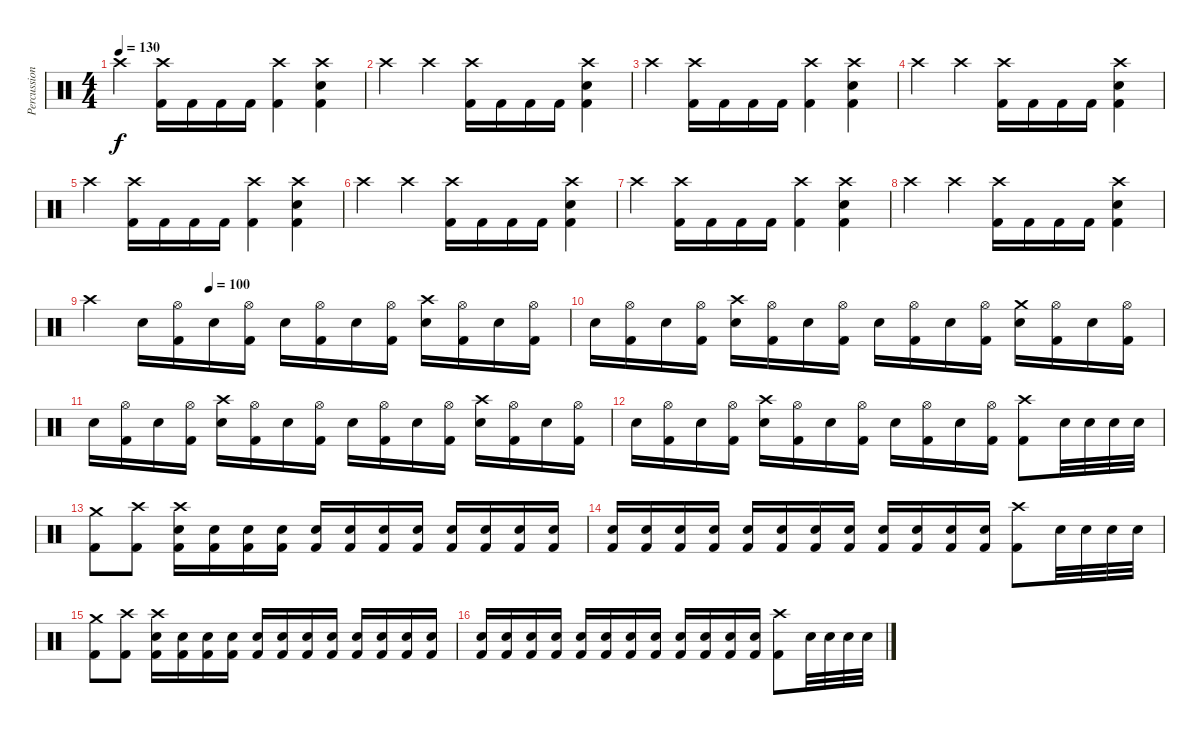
\track ("Percussion" "Percussion") {instrument percussion}
\staff {score}
\articulation defaults
\ts (4 4)
\tempo 130
\clef neutral
\ks c "Crash high (hit)".4{dy f}
("Crash high (hit)" "Kick (hit) 2").16 "Kick (hit) 2".16 "Kick (hit) 2".16 "Kick (hit) 2".16 ("Crash high (hit)" "Kick (hit) 2").4 ("Crash high (hit)" "Electric Snare (hit)" "Kick (hit) 2").4 |
"Crash high (hit)".4 "Crash high (hit)".4 ("Crash high (hit)" "Kick (hit) 2").16 "Kick (hit) 2".16 "Kick (hit) 2".16 "Kick (hit) 2".16 ("Crash high (hit)" "Electric Snare (hit)" "Kick (hit) 2").4 |
"Crash high (hit)".4 ("Crash high (hit)" "Kick (hit) 2").16 "Kick (hit) 2".16 "Kick (hit) 2".16 "Kick (hit) 2".16 ("Crash high (hit)" "Kick (hit) 2").4 ("Crash high (hit)" "Electric Snare (hit)" "Kick (hit) 2").4 |
"Crash high (hit)".4 "Crash high (hit)".4 ("Crash high (hit)" "Kick (hit) 2").16 "Kick (hit) 2".16 "Kick (hit) 2".16 "Kick (hit) 2".16 ("Crash high (hit)" "Electric Snare (hit)" "Kick (hit) 2").4 |
"Crash high (hit)".4 ("Crash high (hit)" "Kick (hit) 2").16 "Kick (hit) 2".16 "Kick (hit) 2".16 "Kick (hit) 2".16 ("Crash high (hit)" "Kick (hit) 2").4 ("Crash high (hit)" "Electric Snare (hit)" "Kick (hit) 2").4 |
"Crash high (hit)".4 "Crash high (hit)".4 ("Crash high (hit)" "Kick (hit) 2").16 "Kick (hit) 2".16 "Kick (hit) 2".16 "Kick (hit) 2".16 ("Crash high (hit)" "Electric Snare (hit)" "Kick (hit) 2").4 |
"Crash high (hit)".4 ("Crash high (hit)" "Kick (hit) 2").16 "Kick (hit) 2".16 "Kick (hit) 2".16 "Kick (hit) 2".16 ("Crash high (hit)" "Kick (hit) 2").4 ("Crash high (hit)" "Electric Snare (hit)" "Kick (hit) 2").4 |
"Crash high (hit)".4 "Crash high (hit)".4 ("Crash high (hit)" "Kick (hit) 2").16 "Kick (hit) 2".16 "Kick (hit) 2".16 "Kick (hit) 2".16 ("Crash high (hit)" "Electric Snare (hit)" "Kick (hit) 2").4 |
\tempo (100 0.25)
"Crash high (hit)".4 "Electric Snare (hit)".16 ("Hi-Hat (open)" "Kick (hit) 2").16 "Electric Snare (hit)".16 ("Hi-Hat (open)" "Kick (hit) 2").16 "Electric Snare (hit)".16 ("Hi-Hat (open)" "Kick (hit) 2").16 "Electric Snare (hit)".16 ("Hi-Hat (open)" "Kick (hit) 2").16 ("Crash high (hit)" "Electric Snare (hit)").16 ("Hi-Hat (open)" "Kick (hit) 2").16 "Electric Snare (hit)".16 ("Hi-Hat (open)" "Kick (hit) 2").16 |
"Electric Snare (hit)".16 ("Hi-Hat (open)" "Kick (hit) 2").16 "Electric Snare (hit)".16 ("Hi-Hat (open)" "Kick (hit) 2").16 ("Crash high (hit)" "Electric Snare (hit)").16 ("Hi-Hat (open)" "Kick (hit) 2").16 "Electric Snare (hit)".16 ("Hi-Hat (open)" "Kick (hit) 2").16 "Electric Snare (hit)".16 ("Hi-Hat (open)" "Kick (hit) 2").16 "Electric Snare (hit)".16 ("Hi-Hat (open)" "Kick (hit) 2").16 ("Crash medium (hit)" "Electric Snare (hit)").16 ("Hi-Hat (open)" "Kick (hit) 2").16 "Electric Snare (hit)".16 ("Hi-Hat (open)" "Kick (hit) 2").16 |
"Electric Snare (hit)".16 ("Hi-Hat (open)" "Kick (hit) 2").16 "Electric Snare (hit)".16 ("Hi-Hat (open)" "Kick (hit) 2").16 ("Crash high (hit)" "Electric Snare (hit)").16 ("Hi-Hat (open)" "Kick (hit) 2").16 "Electric Snare (hit)".16 ("Hi-Hat (open)" "Kick (hit) 2").16 "Electric Snare (hit)".16 ("Hi-Hat (open)" "Kick (hit) 2").16 "Electric Snare (hit)".16 ("Hi-Hat (open)" "Kick (hit) 2").16 ("Crash high (hit)" "Electric Snare (hit)").16 ("Hi-Hat (open)" "Kick (hit) 2").16 "Electric Snare (hit)".16 ("Hi-Hat (open)" "Kick (hit) 2").16 |
"Electric Snare (hit)".16 ("Hi-Hat (open)" "Kick (hit) 2").16 "Electric Snare (hit)".16 ("Hi-Hat (open)" "Kick (hit) 2").16 ("Crash high (hit)" "Electric Snare (hit)").16 ("Hi-Hat (open)" "Kick (hit) 2").16 "Electric Snare (hit)".16 ("Hi-Hat (open)" "Kick (hit) 2").16 "Electric Snare (hit)".16 ("Hi-Hat (open)" "Kick (hit) 2").16 "Electric Snare (hit)".16 ("Hi-Hat (open)" "Kick (hit) 2").16 ("Crash high (hit)" "Kick (hit) 2").8 "Electric Snare (hit)".32 "Electric Snare (hit)".32 "Electric Snare (hit)".32 "Electric Snare (hit)".32 |
("Crash medium (hit)" "Kick (hit) 2").8 ("Crash high (hit)" "Kick (hit) 2").8 ("Crash high (hit)" "Electric Snare (hit)" "Kick (hit) 2").16 ("Electric Snare (hit)" "Kick (hit) 2").16 ("Electric Snare (hit)" "Kick (hit) 2").16 ("Electric Snare (hit)" "Kick (hit) 2").16 ("Electric Snare (hit)" "Kick (hit) 2").16 ("Electric Snare (hit)" "Kick (hit) 2").16 ("Electric Snare (hit)" "Kick (hit) 2").16 ("Electric Snare (hit)" "Kick (hit) 2").16 ("Electric Snare (hit)" "Kick (hit) 2").16 ("Electric Snare (hit)" "Kick (hit) 2").16 ("Electric Snare (hit)" "Kick (hit) 2").16 ("Electric Snare (hit)" "Kick (hit) 2").16 |
("Electric Snare (hit)" "Kick (hit) 2").16 ("Electric Snare (hit)" "Kick (hit) 2").16 ("Electric Snare (hit)" "Kick (hit) 2").16 ("Electric Snare (hit)" "Kick (hit) 2").16 ("Electric Snare (hit)" "Kick (hit) 2").16 ("Electric Snare (hit)" "Kick (hit) 2").16 ("Electric Snare (hit)" "Kick (hit) 2").16 ("Electric Snare (hit)" "Kick (hit) 2").16 ("Electric Snare (hit)" "Kick (hit) 2").16 ("Electric Snare (hit)" "Kick (hit) 2").16 ("Electric Snare (hit)" "Kick (hit) 2").16 ("Electric Snare (hit)" "Kick (hit) 2").16 ("Crash high (hit)" "Kick (hit) 2").8 "Electric Snare (hit)".32 "Electric Snare (hit)".32 "Electric Snare (hit)".32 "Electric Snare (hit)".32 |
("Crash medium (hit)" "Kick (hit) 2").8 ("Crash high (hit)" "Kick (hit) 2").8 ("Crash high (hit)" "Electric Snare (hit)" "Kick (hit) 2").16 ("Electric Snare (hit)" "Kick (hit) 2").16 ("Electric Snare (hit)" "Kick (hit) 2").16 ("Electric Snare (hit)" "Kick (hit) 2").16 ("Electric Snare (hit)" "Kick (hit) 2").16 ("Electric Snare (hit)" "Kick (hit) 2").16 ("Electric Snare (hit)" "Kick (hit) 2").16 ("Electric Snare (hit)" "Kick (hit) 2").16 ("Electric Snare (hit)" "Kick (hit) 2").16 ("Electric Snare (hit)" "Kick (hit) 2").16 ("Electric Snare (hit)" "Kick (hit) 2").16 ("Electric Snare (hit)" "Kick (hit) 2").16 |
("Electric Snare (hit)" "Kick (hit) 2").16 ("Electric Snare (hit)" "Kick (hit) 2").16 ("Electric Snare (hit)" "Kick (hit) 2").16 ("Electric Snare (hit)" "Kick (hit) 2").16 ("Electric Snare (hit)" "Kick (hit) 2").16 ("Electric Snare (hit)" "Kick (hit) 2").16 ("Electric Snare (hit)" "Kick (hit) 2").16 ("Electric Snare (hit)" "Kick (hit) 2").16 ("Electric Snare (hit)" "Kick (hit) 2").16 ("Electric Snare (hit)" "Kick (hit) 2").16 ("Electric Snare (hit)" "Kick (hit) 2").16 ("Electric Snare (hit)" "Kick (hit) 2").16 ("Crash high (hit)" "Kick (hit) 2").8 "Electric Snare (hit)".32 "Electric Snare (hit)".32 "Electric Snare (hit)".32 "Electric Snare (hit)".32
